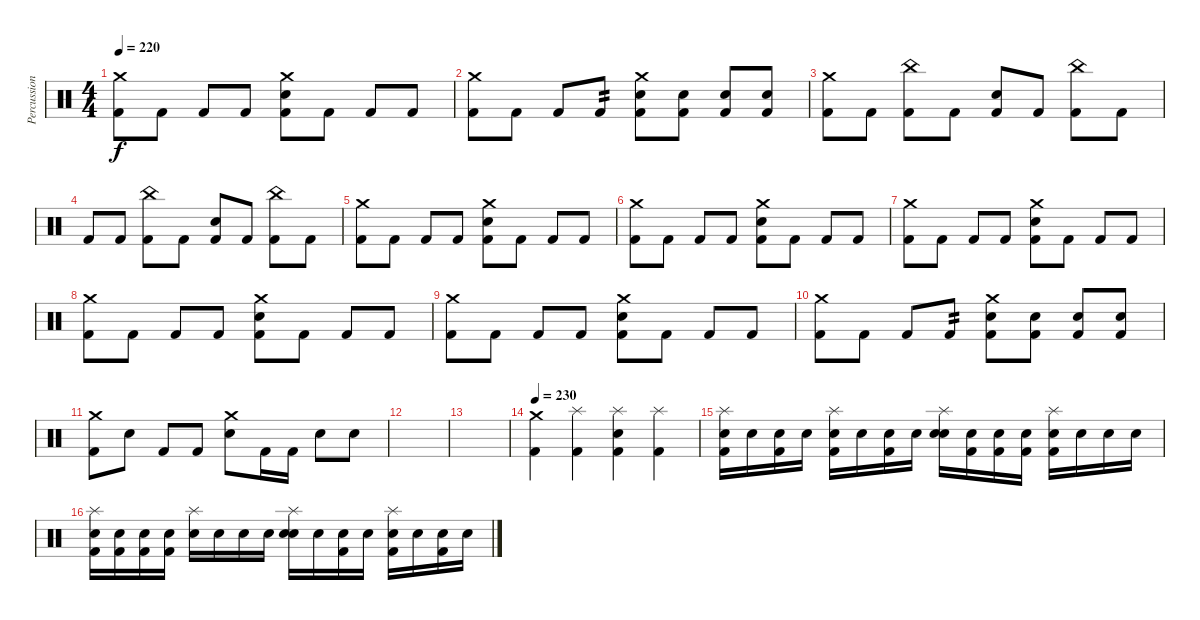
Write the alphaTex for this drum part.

\track ("Percussion" "Percussion") {instrument percussion}
\staff {score}
\articulation defaults
\ts (4 4)
\tempo 220
\clef neutral
\ks c
("Crash medium (hit)" "Kick (hit) 2").8{dy f} "Kick (hit) 2".8 "Kick (hit) 2".8 "Kick (hit) 2".8 ("Snare (hit) 2" "Crash medium (hit)" "Kick (hit) 2").8 "Kick (hit) 2".8 "Kick (hit) 2".8 "Kick (hit) 2".8 |
("Crash medium (hit)" "Kick (hit) 2").8 "Kick (hit) 2".8 "Kick (hit) 2".8 "Kick (hit) 2".8{tp 2} ("Snare (hit) 2" "Crash medium (hit)" "Kick (hit) 2").8 ("Snare (hit) 2" "Kick (hit) 2").8 ("Snare (hit) 2" "Kick (hit) 2").8 ("Snare (hit) 2" "Kick (hit) 2").8 |
("Crash medium (hit)" "Kick (hit) 2").8 "Kick (hit) 2".8 ("China (hit)" "Kick (hit) 2").8 "Kick (hit) 2".8 ("Snare (hit) 2" "Kick (hit) 2").8 "Kick (hit) 2".8 ("China (hit)" "Kick (hit) 2").8 "Kick (hit) 2".8 |
"Kick (hit) 2".8 "Kick (hit) 2".8 ("China (hit)" "Kick (hit) 2").8 "Kick (hit) 2".8 ("Snare (hit) 2" "Kick (hit) 2").8 "Kick (hit) 2".8 ("China (hit)" "Kick (hit) 2").8 "Kick (hit) 2".8 |
("Crash medium (hit)" "Kick (hit) 2").8 "Kick (hit) 2".8 "Kick (hit) 2".8 "Kick (hit) 2".8 ("Snare (hit) 2" "Crash medium (hit)" "Kick (hit) 2").8 "Kick (hit) 2".8 "Kick (hit) 2".8 "Kick (hit) 2".8 |
("Crash medium (hit)" "Kick (hit) 2").8 "Kick (hit) 2".8 "Kick (hit) 2".8 "Kick (hit) 2".8 ("Snare (hit) 2" "Crash medium (hit)" "Kick (hit) 2").8 "Kick (hit) 2".8 "Kick (hit) 2".8 "Kick (hit) 2".8 |
("Crash medium (hit)" "Kick (hit) 2").8 "Kick (hit) 2".8 "Kick (hit) 2".8 "Kick (hit) 2".8 ("Snare (hit) 2" "Crash medium (hit)" "Kick (hit) 2").8 "Kick (hit) 2".8 "Kick (hit) 2".8 "Kick (hit) 2".8 |
("Crash medium (hit)" "Kick (hit) 2").8 "Kick (hit) 2".8 "Kick (hit) 2".8 "Kick (hit) 2".8 ("Snare (hit) 2" "Crash medium (hit)" "Kick (hit) 2").8 "Kick (hit) 2".8 "Kick (hit) 2".8 "Kick (hit) 2".8 |
("Crash medium (hit)" "Kick (hit) 2").8 "Kick (hit) 2".8 "Kick (hit) 2".8 "Kick (hit) 2".8 ("Snare (hit) 2" "Crash medium (hit)" "Kick (hit) 2").8 "Kick (hit) 2".8 "Kick (hit) 2".8 "Kick (hit) 2".8 |
("Crash medium (hit)" "Kick (hit) 2").8 "Kick (hit) 2".8 "Kick (hit) 2".8 "Kick (hit) 2".8{tp 2} ("Snare (hit) 2" "Crash medium (hit)" "Kick (hit) 2").8 ("Snare (hit) 2" "Kick (hit) 2").8 ("Snare (hit) 2" "Kick (hit) 2").8 ("Snare (hit) 2" "Kick (hit) 2").8 |
("Kick (hit) 2" "Crash medium (hit)").8 "Snare (hit) 2".8 "Kick (hit) 2".8 "Kick (hit) 2".8 ("Snare (hit) 2" "Crash medium (hit)").8 "Kick (hit) 2".16 "Kick (hit) 2".16 "Snare (hit) 2".8 "Snare (hit) 2".8 |
|
|
\tempo 230
("Crash medium (hit)" "Kick (hit) 2").4 ("Splash (hit)" "Kick (hit) 2").4 ("Splash (hit)" "Snare (hit) 2" "Kick (hit) 2").4 ("Splash (hit)" "Kick (hit) 2").4 |
("Splash (hit)" "Kick (hit) 2" "Snare (hit)").16 "Snare (hit)".16 ("Kick (hit) 2" "Snare (hit)").16 "Snare (hit)".16 ("Splash (hit)" "Kick (hit) 2" "Snare (hit)").16 "Snare (hit)".16 ("Kick (hit) 2" "Snare (hit)").16 "Snare (hit)".16 ("Splash (hit)" "Snare (hit) 2" "Snare (hit)").16 ("Kick (hit) 2" "Snare (hit)").16 ("Kick (hit) 2" "Snare (hit)").16 ("Kick (hit) 2" "Snare (hit)").16 ("Splash (hit)" "Kick (hit) 2" "Snare (hit)").16 "Snare (hit)".16 "Snare (hit)".16 "Snare (hit)".16 |
("Splash (hit)" "Kick (hit) 2" "Snare (hit)").16 ("Kick (hit) 2" "Snare (hit)").16 ("Kick (hit) 2" "Snare (hit)").16 ("Kick (hit) 2" "Snare (hit)").16 ("Splash (hit)" "Snare (hit)").16 "Snare (hit)".16 "Snare (hit)".16 "Snare (hit)".16 ("Splash (hit)" "Snare (hit) 2" "Snare (hit)").16 "Snare (hit)".16 ("Kick (hit) 2" "Snare (hit)").16 "Snare (hit)".16 ("Splash (hit)" "Kick (hit) 2" "Snare (hit)").16 "Snare (hit)".16 ("Kick (hit) 2" "Snare (hit)").16 "Snare (hit)".16
